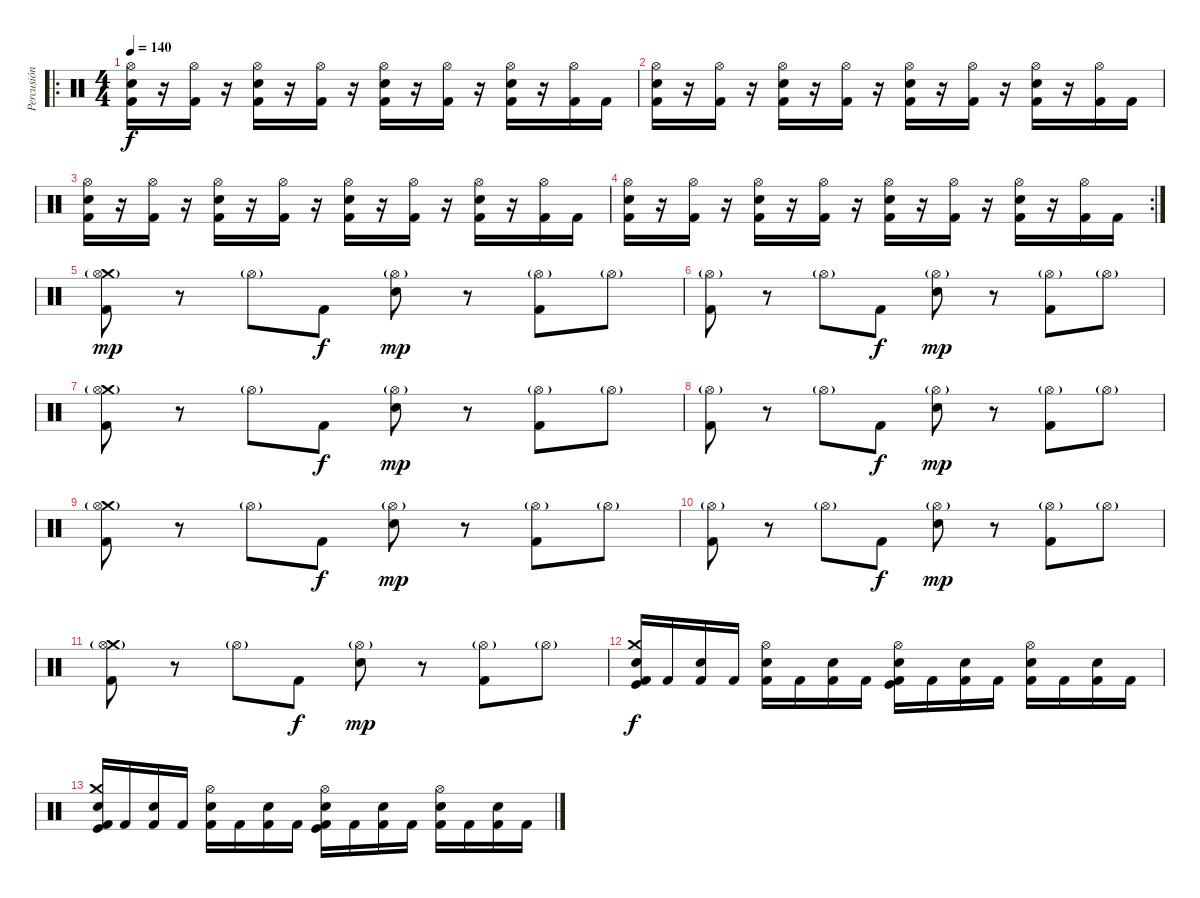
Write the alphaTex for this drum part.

\track ("Percusión" "Percusión") {instrument percussion}
\staff {score}
\articulation defaults
\ro
\ts (4 4)
\tempo 140
\clef neutral
\ks c
("Hi-Hat (open)" "Electric Snare (hit)" "Kick (hit) 2").16{dy f} r.16 ("Hi-Hat (open)" "Kick (hit) 2").16 r.16 ("Hi-Hat (open)" "Electric Snare (hit)" "Kick (hit) 2").16 r.16 ("Hi-Hat (open)" "Kick (hit) 2").16 r.16 ("Hi-Hat (open)" "Electric Snare (hit)" "Kick (hit) 2").16 r.16 ("Hi-Hat (open)" "Kick (hit) 2").16 r.16 ("Hi-Hat (open)" "Electric Snare (hit)" "Kick (hit) 2").16 r.16 ("Hi-Hat (open)" "Kick (hit) 2").16 "Kick (hit) 2".16 |
("Hi-Hat (open)" "Electric Snare (hit)" "Kick (hit) 2").16 r.16 ("Hi-Hat (open)" "Kick (hit) 2").16 r.16 ("Hi-Hat (open)" "Electric Snare (hit)" "Kick (hit) 2").16 r.16 ("Hi-Hat (open)" "Kick (hit) 2").16 r.16 ("Hi-Hat (open)" "Electric Snare (hit)" "Kick (hit) 2").16 r.16 ("Hi-Hat (open)" "Kick (hit) 2").16 r.16 ("Hi-Hat (open)" "Electric Snare (hit)" "Kick (hit) 2").16 r.16 ("Hi-Hat (open)" "Kick (hit) 2").16 "Kick (hit) 2".16 |
("Hi-Hat (open)" "Electric Snare (hit)" "Kick (hit) 2").16 r.16 ("Hi-Hat (open)" "Kick (hit) 2").16 r.16 ("Hi-Hat (open)" "Electric Snare (hit)" "Kick (hit) 2").16 r.16 ("Hi-Hat (open)" "Kick (hit) 2").16 r.16 ("Hi-Hat (open)" "Electric Snare (hit)" "Kick (hit) 2").16 r.16 ("Hi-Hat (open)" "Kick (hit) 2").16 r.16 ("Hi-Hat (open)" "Electric Snare (hit)" "Kick (hit) 2").16 r.16 ("Hi-Hat (open)" "Kick (hit) 2").16 "Kick (hit) 2".16 |
\rc 2
("Hi-Hat (open)" "Electric Snare (hit)" "Kick (hit) 2").16 r.16 ("Hi-Hat (open)" "Kick (hit) 2").16 r.16 ("Hi-Hat (open)" "Electric Snare (hit)" "Kick (hit) 2").16 r.16 ("Hi-Hat (open)" "Kick (hit) 2").16 r.16 ("Hi-Hat (open)" "Electric Snare (hit)" "Kick (hit) 2").16 r.16 ("Hi-Hat (open)" "Kick (hit) 2").16 r.16 ("Hi-Hat (open)" "Electric Snare (hit)" "Kick (hit) 2").16 r.16 ("Hi-Hat (open)" "Kick (hit) 2").16 "Kick (hit) 2".16 |
("Kick (hit) 2" "Crash medium (hit)" "Hi-Hat (open)"{g}).8{dy mp} r.8 "Hi-Hat (open)"{g}.8 "Kick (hit) 2".8{dy f} ("Electric Snare (hit)" "Hi-Hat (open)"{g}).8{dy mp} r.8 ("Kick (hit) 2" "Hi-Hat (open)"{g}).8 "Hi-Hat (open)"{g}.8 |
("Kick (hit) 2" "Hi-Hat (open)"{g}).8 r.8 "Hi-Hat (open)"{g}.8 "Kick (hit) 2".8{dy f} ("Electric Snare (hit)" "Hi-Hat (open)"{g}).8{dy mp} r.8 ("Kick (hit) 2" "Hi-Hat (open)"{g}).8 "Hi-Hat (open)"{g}.8 |
("Kick (hit) 2" "Crash medium (hit)" "Hi-Hat (open)"{g}).8 r.8 "Hi-Hat (open)"{g}.8 "Kick (hit) 2".8{dy f} ("Electric Snare (hit)" "Hi-Hat (open)"{g}).8{dy mp} r.8 ("Kick (hit) 2" "Hi-Hat (open)"{g}).8 "Hi-Hat (open)"{g}.8 |
("Kick (hit) 2" "Hi-Hat (open)"{g}).8 r.8 "Hi-Hat (open)"{g}.8 "Kick (hit) 2".8{dy f} ("Electric Snare (hit)" "Hi-Hat (open)"{g}).8{dy mp} r.8 ("Kick (hit) 2" "Hi-Hat (open)"{g}).8 "Hi-Hat (open)"{g}.8 |
("Kick (hit) 2" "Crash medium (hit)" "Hi-Hat (open)"{g}).8 r.8 "Hi-Hat (open)"{g}.8 "Kick (hit) 2".8{dy f} ("Electric Snare (hit)" "Hi-Hat (open)"{g}).8{dy mp} r.8 ("Kick (hit) 2" "Hi-Hat (open)"{g}).8 "Hi-Hat (open)"{g}.8 |
("Kick (hit) 2" "Hi-Hat (open)"{g}).8 r.8 "Hi-Hat (open)"{g}.8 "Kick (hit) 2".8{dy f} ("Electric Snare (hit)" "Hi-Hat (open)"{g}).8{dy mp} r.8 ("Kick (hit) 2" "Hi-Hat (open)"{g}).8 "Hi-Hat (open)"{g}.8 |
("Kick (hit) 2" "Crash medium (hit)" "Hi-Hat (open)"{g}).8 r.8 "Hi-Hat (open)"{g}.8 "Kick (hit) 2".8{dy f} ("Electric Snare (hit)" "Hi-Hat (open)"{g}).8{dy mp} r.8 ("Kick (hit) 2" "Hi-Hat (open)"{g}).8 "Hi-Hat (open)"{g}.8 |
("Crash medium (hit)" "Electric Snare (hit)" "Kick (hit)" "Kick (hit) 2").16{dy f} "Kick (hit) 2".16 ("Electric Snare (hit)" "Kick (hit) 2").16 "Kick (hit) 2".16 ("Hi-Hat (open)" "Electric Snare (hit)" "Kick (hit) 2").16 "Kick (hit) 2".16 ("Electric Snare (hit)" "Kick (hit) 2").16 "Kick (hit) 2".16 ("Hi-Hat (open)" "Electric Snare (hit)" "Kick (hit)" "Kick (hit) 2").16 "Kick (hit) 2".16 ("Electric Snare (hit)" "Kick (hit) 2").16 "Kick (hit) 2".16 ("Hi-Hat (open)" "Electric Snare (hit)" "Kick (hit) 2").16 "Kick (hit) 2".16 ("Electric Snare (hit)" "Kick (hit) 2").16 "Kick (hit) 2".16 |
("Crash medium (hit)" "Electric Snare (hit)" "Kick (hit)" "Kick (hit) 2").16 "Kick (hit) 2".16 ("Electric Snare (hit)" "Kick (hit) 2").16 "Kick (hit) 2".16 ("Hi-Hat (open)" "Electric Snare (hit)" "Kick (hit) 2").16 "Kick (hit) 2".16 ("Electric Snare (hit)" "Kick (hit) 2").16 "Kick (hit) 2".16 ("Hi-Hat (open)" "Electric Snare (hit)" "Kick (hit)" "Kick (hit) 2").16 "Kick (hit) 2".16 ("Electric Snare (hit)" "Kick (hit) 2").16 "Kick (hit) 2".16 ("Hi-Hat (open)" "Electric Snare (hit)" "Kick (hit) 2").16 "Kick (hit) 2".16 ("Electric Snare (hit)" "Kick (hit) 2").16 "Kick (hit) 2".16
